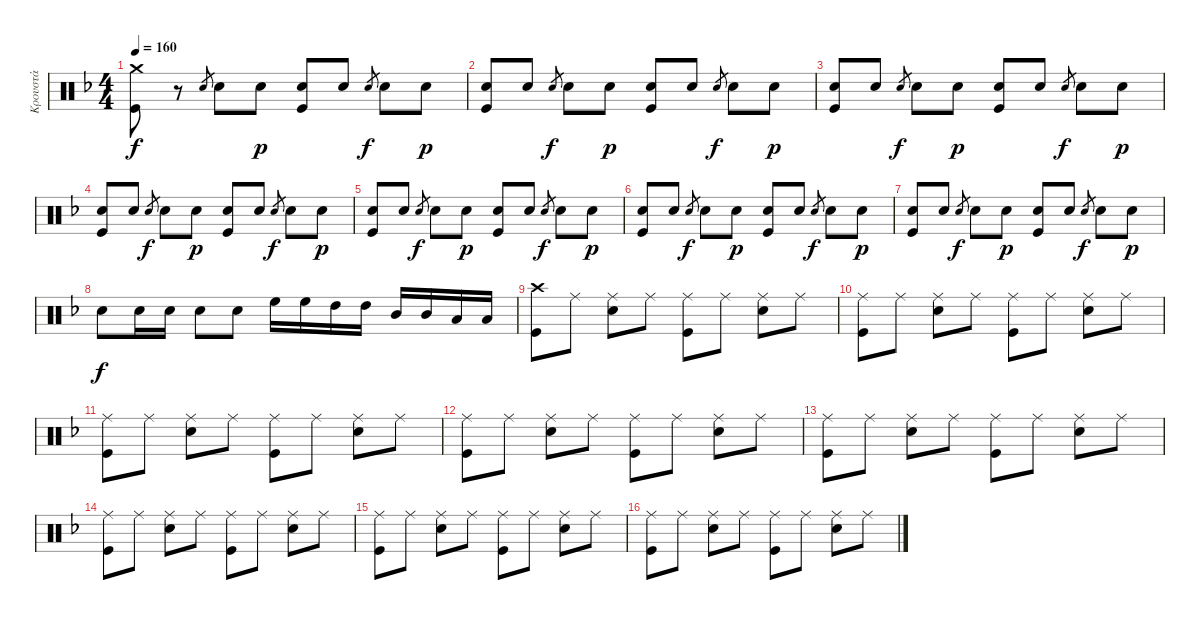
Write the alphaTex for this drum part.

\track ("Κρουστά" "Κρουστά") {instrument percussion}
\staff {score}
\articulation defaults
\ts (4 4)
\tempo 160
\clef neutral
\ks dminor
("Crash medium (hit)" "Kick (hit)").8{dy f} r.8 "Snare (hit) 2".8{gr} "Snare (hit) 2".8 "Snare (hit) 2".8{dy p} ("Snare (hit) 2" "Kick (hit)").8 "Snare (hit) 2".8 "Snare (hit) 2".8{gr dy f} "Snare (hit) 2".8 "Snare (hit) 2".8{dy p} |
("Snare (hit) 2" "Kick (hit)").8 "Snare (hit) 2".8 "Snare (hit) 2".8{gr dy f} "Snare (hit) 2".8 "Snare (hit) 2".8{dy p} ("Snare (hit) 2" "Kick (hit)").8 "Snare (hit) 2".8 "Snare (hit) 2".8{gr dy f} "Snare (hit) 2".8 "Snare (hit) 2".8{dy p} |
("Snare (hit) 2" "Kick (hit)").8 "Snare (hit) 2".8 "Snare (hit) 2".8{gr dy f} "Snare (hit) 2".8 "Snare (hit) 2".8{dy p} ("Snare (hit) 2" "Kick (hit)").8 "Snare (hit) 2".8 "Snare (hit) 2".8{gr dy f} "Snare (hit) 2".8 "Snare (hit) 2".8{dy p} |
("Snare (hit) 2" "Kick (hit)").8 "Snare (hit) 2".8 "Snare (hit) 2".8{gr dy f} "Snare (hit) 2".8 "Snare (hit) 2".8{dy p} ("Snare (hit) 2" "Kick (hit)").8 "Snare (hit) 2".8 "Snare (hit) 2".8{gr dy f} "Snare (hit) 2".8 "Snare (hit) 2".8{dy p} |
("Snare (hit) 2" "Kick (hit)").8 "Snare (hit) 2".8 "Snare (hit) 2".8{gr dy f} "Snare (hit) 2".8 "Snare (hit) 2".8{dy p} ("Snare (hit) 2" "Kick (hit)").8 "Snare (hit) 2".8 "Snare (hit) 2".8{gr dy f} "Snare (hit) 2".8 "Snare (hit) 2".8{dy p} |
("Snare (hit) 2" "Kick (hit)").8 "Snare (hit) 2".8 "Snare (hit) 2".8{gr dy f} "Snare (hit) 2".8 "Snare (hit) 2".8{dy p} ("Snare (hit) 2" "Kick (hit)").8 "Snare (hit) 2".8 "Snare (hit) 2".8{gr dy f} "Snare (hit) 2".8 "Snare (hit) 2".8{dy p} |
("Snare (hit) 2" "Kick (hit)").8 "Snare (hit) 2".8 "Snare (hit) 2".8{gr dy f} "Snare (hit) 2".8 "Snare (hit) 2".8{dy p} ("Snare (hit) 2" "Kick (hit)").8 "Snare (hit) 2".8 "Snare (hit) 2".8{gr dy f} "Snare (hit) 2".8 "Snare (hit) 2".8{dy p} |
"Snare (hit) 2".8{dy f} "Snare (hit) 2".16 "Snare (hit) 2".16 "Snare (hit) 2".8 "Snare (hit) 2".8 "High Floor Tom (hit)".16 "High Floor Tom (hit)".16 "High Tom (hit)".16 "High Tom (hit)".16 "Mid Tom (hit)".16 "Mid Tom (hit)".16 "Low Tom (hit)".16 "Low Tom (hit)".16 |
("Kick (hit)" "Crash high (hit)").8 "Ride (middle)".8 ("Ride (middle)" "Snare (hit) 2").8 "Ride (middle)".8 ("Ride (middle)" "Kick (hit)").8 "Ride (middle)".8 ("Ride (middle)" "Snare (hit) 2").8 "Ride (middle)".8 |
("Ride (middle)" "Kick (hit)").8 "Ride (middle)".8 ("Ride (middle)" "Snare (hit) 2").8 "Ride (middle)".8 ("Ride (middle)" "Kick (hit)").8 "Ride (middle)".8 ("Ride (middle)" "Snare (hit) 2").8 "Ride (middle)".8 |
("Ride (middle)" "Kick (hit)").8 "Ride (middle)".8 ("Ride (middle)" "Snare (hit) 2").8 "Ride (middle)".8 ("Ride (middle)" "Kick (hit)").8 "Ride (middle)".8 ("Ride (middle)" "Snare (hit) 2").8 "Ride (middle)".8 |
("Ride (middle)" "Kick (hit)").8 "Ride (middle)".8 ("Ride (middle)" "Snare (hit) 2").8 "Ride (middle)".8 ("Ride (middle)" "Kick (hit)").8 "Ride (middle)".8 ("Ride (middle)" "Snare (hit) 2").8 "Ride (middle)".8 |
("Ride (middle)" "Kick (hit)").8 "Ride (middle)".8 ("Ride (middle)" "Snare (hit) 2").8 "Ride (middle)".8 ("Ride (middle)" "Kick (hit)").8 "Ride (middle)".8 ("Ride (middle)" "Snare (hit) 2").8 "Ride (middle)".8 |
("Ride (middle)" "Kick (hit)").8 "Ride (middle)".8 ("Ride (middle)" "Snare (hit) 2").8 "Ride (middle)".8 ("Ride (middle)" "Kick (hit)").8 "Ride (middle)".8 ("Ride (middle)" "Snare (hit) 2").8 "Ride (middle)".8 |
("Ride (middle)" "Kick (hit)").8 "Ride (middle)".8 ("Ride (middle)" "Snare (hit) 2").8 "Ride (middle)".8 ("Ride (middle)" "Kick (hit)").8 "Ride (middle)".8 ("Ride (middle)" "Snare (hit) 2").8 "Ride (middle)".8 |
("Ride (middle)" "Kick (hit)").8 "Ride (middle)".8 ("Ride (middle)" "Snare (hit) 2").8 "Ride (middle)".8 ("Ride (middle)" "Kick (hit)").8 "Ride (middle)".8 ("Ride (middle)" "Snare (hit) 2").8 "Ride (middle)".8
